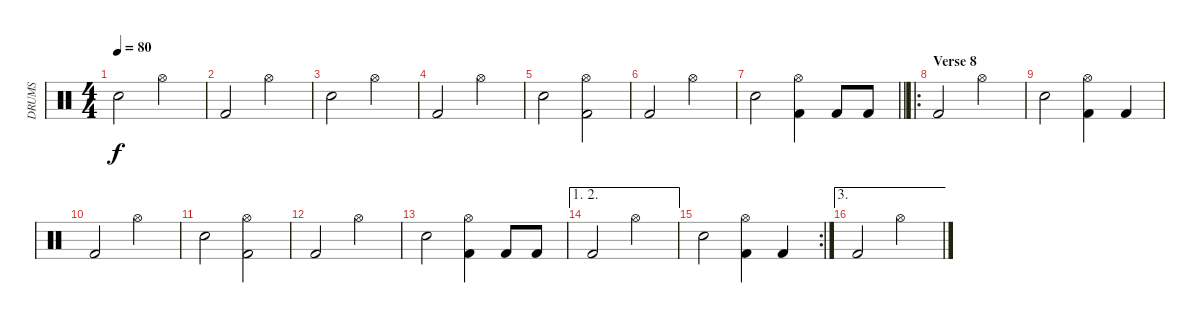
\track ("DRUMS" "DRUMS") {instrument percussion}
\staff {score}
\articulation defaults
\ts (4 4)
\tempo 80
\clef neutral
\ks c "Snare (hit) 2".2{dy f} "Hi-Hat (open)".2
|
"Kick (hit) 2".2 "Hi-Hat (open)".2 |
"Snare (hit) 2".2 "Hi-Hat (open)".2 |
"Kick (hit) 2".2 "Hi-Hat (open)".2 |
"Snare (hit) 2".2 ("Hi-Hat (open)" "Kick (hit) 2").2 |
"Kick (hit) 2".2 "Hi-Hat (open)".2 |
\barLineRight lightlight "Snare (hit) 2".2
("Hi-Hat (open)" "Kick (hit) 2").4 "Kick (hit) 2".8 "Kick (hit) 2".8 |
\ro
\section ("" "Verse 8")
"Kick (hit) 2".2 "Hi-Hat (open)".2 |
"Snare (hit) 2".2 ("Hi-Hat (open)" "Kick (hit) 2").4 "Kick (hit) 2".4 |
"Kick (hit) 2".2 "Hi-Hat (open)".2 |
"Snare (hit) 2".2 ("Hi-Hat (open)" "Kick (hit) 2").2 |
"Kick (hit) 2".2 "Hi-Hat (open)".2 |
"Snare (hit) 2".2 ("Hi-Hat (open)" "Kick (hit) 2").4 "Kick (hit) 2".8 "Kick (hit) 2".8 |
\ae (1 2)
"Kick (hit) 2".2 "Hi-Hat (open)".2 |
\rc 2 "Snare (hit) 2".2
("Hi-Hat (open)" "Kick (hit) 2").4 "Kick (hit) 2".4 |
\ae 3 "Kick (hit) 2".2 "Hi-Hat (open)".2
